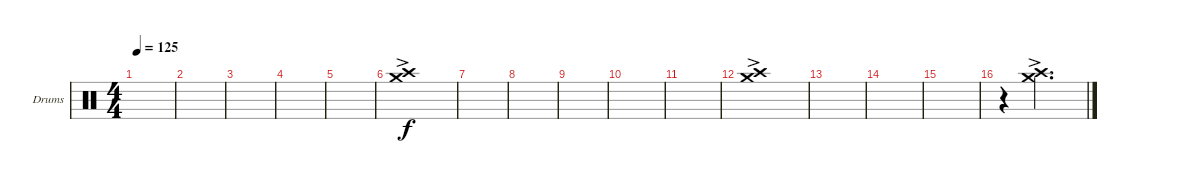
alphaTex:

\defaultSystemsLayout 4
\bracketExtendMode groupsimilarinstruments
\firstSystemTrackNameOrientation horizontal
\otherSystemsTrackNameOrientation horizontal
\track ("Drumkit" "Drums") {instrument percussion}
\staff {score}
\articulation defaults
\ts (4 4)
\tempo 125
\clef neutral
\scale
0.333333
\ks c
|
\scale
0.333333 |
\scale
0.333333 |
\scale
0.333333 |
\scale
0.333333 |
\scale
0.333333 ("Crash high (hit)"{ac} "Crash medium (hit)"{ac}).1 |
\scale
0.333333 |
\scale
0.333333 |
\scale
0.333333 |
\scale
0.333333 |
\scale
0.333333 |
\scale
0.333333 ("Crash high (hit)"{ac} "Crash medium (hit)"{ac}).1 |
\scale
0.333333 |
\scale
0.333333 |
\scale
0.333333 |
\scale
0.333333 r.4 ("Crash high (hit)"{ac} "Crash medium (hit)"{ac}).2{d}
